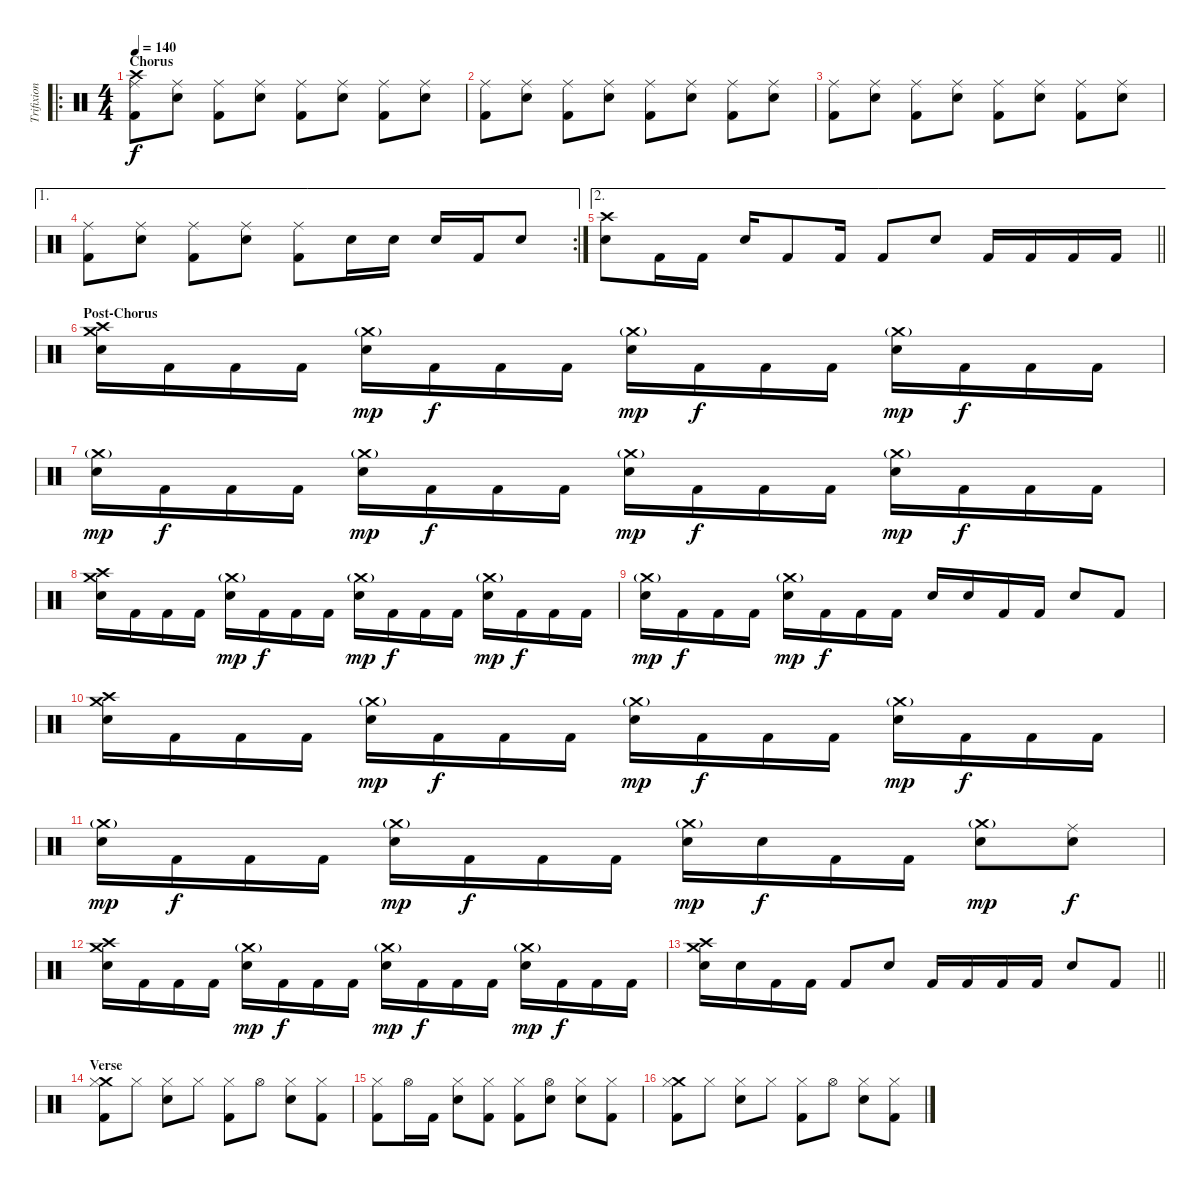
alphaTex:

\track ("Trifixion of the Horned King" "Trifixion ") {instrument percussion}
\staff {score}
\articulation defaults
\ro
\ts (4 4)
\section ("" "Chorus")
\tempo 140
\clef neutral
\ks c
("Crash high (hit)" "Ride (middle)" "Kick (hit) 2").8{dy f} ("Ride (middle)" "Electric Snare (hit)").8 ("Ride (middle)" "Kick (hit) 2").8 ("Ride (middle)" "Electric Snare (hit)").8 ("Ride (middle)" "Kick (hit) 2").8 ("Ride (middle)" "Electric Snare (hit)").8 ("Ride (middle)" "Kick (hit) 2").8 ("Ride (middle)" "Electric Snare (hit)").8 |
("Ride (middle)" "Kick (hit) 2").8 ("Ride (middle)" "Electric Snare (hit)").8 ("Ride (middle)" "Kick (hit) 2").8 ("Ride (middle)" "Electric Snare (hit)").8 ("Ride (middle)" "Kick (hit) 2").8 ("Ride (middle)" "Electric Snare (hit)").8 ("Ride (middle)" "Kick (hit) 2").8 ("Ride (middle)" "Electric Snare (hit)").8 |
("Ride (middle)" "Kick (hit) 2").8 ("Ride (middle)" "Electric Snare (hit)").8 ("Ride (middle)" "Kick (hit) 2").8 ("Ride (middle)" "Electric Snare (hit)").8 ("Ride (middle)" "Kick (hit) 2").8 ("Ride (middle)" "Electric Snare (hit)").8 ("Ride (middle)" "Kick (hit) 2").8 ("Ride (middle)" "Electric Snare (hit)").8 |
\ae 1
\rc 2
("Ride (middle)" "Kick (hit) 2").8 ("Ride (middle)" "Electric Snare (hit)").8 ("Ride (middle)" "Kick (hit) 2").8 ("Ride (middle)" "Electric Snare (hit)").8 ("Ride (middle)" "Kick (hit) 2").8 "Electric Snare (hit)".16 "Electric Snare (hit)".16 "Electric Snare (hit)".16 "Kick (hit) 2".16 "Electric Snare (hit)".8 |
\ae 2
\barLineRight lightlight
("Crash high (hit)" "Electric Snare (hit)").8 "Kick (hit) 2".16 "Kick (hit) 2".16 "Electric Snare (hit)".16 "Kick (hit) 2".8 "Kick (hit) 2".16 "Kick (hit) 2".8 "Electric Snare (hit)".8 "Kick (hit) 2".16 "Kick (hit) 2".16 "Kick (hit) 2".16 "Kick (hit) 2".16 |
\section ("" "Post-Chorus")
("Crash high (hit)" "Crash medium (hit)" "Electric Snare (hit)").16 "Kick (hit) 2".16 "Kick (hit) 2".16 "Kick (hit) 2".16 ("Crash medium (hit)"{g} "Electric Snare (hit)").16{dy mp} "Kick (hit) 2".16{dy f} "Kick (hit) 2".16 "Kick (hit) 2".16 ("Crash medium (hit)"{g} "Electric Snare (hit)").16{dy mp} "Kick (hit) 2".16{dy f} "Kick (hit) 2".16 "Kick (hit) 2".16 ("Crash medium (hit)"{g} "Electric Snare (hit)").16{dy mp} "Kick (hit) 2".16{dy f} "Kick (hit) 2".16 "Kick (hit) 2".16 |
("Crash medium (hit)"{g} "Electric Snare (hit)").16{dy mp} "Kick (hit) 2".16{dy f} "Kick (hit) 2".16 "Kick (hit) 2".16 ("Crash medium (hit)"{g} "Electric Snare (hit)").16{dy mp} "Kick (hit) 2".16{dy f} "Kick (hit) 2".16 "Kick (hit) 2".16 ("Crash medium (hit)"{g} "Electric Snare (hit)").16{dy mp} "Kick (hit) 2".16{dy f} "Kick (hit) 2".16 "Kick (hit) 2".16 ("Crash medium (hit)"{g} "Electric Snare (hit)").16{dy mp} "Kick (hit) 2".16{dy f} "Kick (hit) 2".16 "Kick (hit) 2".16 |
("Crash medium (hit)" "Crash high (hit)" "Electric Snare (hit)").16 "Kick (hit) 2".16 "Kick (hit) 2".16 "Kick (hit) 2".16 ("Crash medium (hit)"{g} "Electric Snare (hit)").16{dy mp} "Kick (hit) 2".16{dy f} "Kick (hit) 2".16 "Kick (hit) 2".16 ("Crash medium (hit)"{g} "Electric Snare (hit)").16{dy mp} "Kick (hit) 2".16{dy f} "Kick (hit) 2".16 "Kick (hit) 2".16 ("Crash medium (hit)"{g} "Electric Snare (hit)").16{dy mp} "Kick (hit) 2".16{dy f} "Kick (hit) 2".16 "Kick (hit) 2".16 |
("Crash medium (hit)"{g} "Electric Snare (hit)").16{dy mp} "Kick (hit) 2".16{dy f} "Kick (hit) 2".16 "Kick (hit) 2".16 ("Crash medium (hit)"{g} "Electric Snare (hit)").16{dy mp} "Kick (hit) 2".16{dy f} "Kick (hit) 2".16 "Kick (hit) 2".16 "Electric Snare (hit)".16 "Electric Snare (hit)".16 "Kick (hit) 2".16 "Kick (hit) 2".16 "Electric Snare (hit)".8 "Kick (hit) 2".8 |
("Crash high (hit)" "Crash medium (hit)" "Electric Snare (hit)").16 "Kick (hit) 2".16 "Kick (hit) 2".16 "Kick (hit) 2".16 ("Crash medium (hit)"{g} "Electric Snare (hit)").16{dy mp} "Kick (hit) 2".16{dy f} "Kick (hit) 2".16 "Kick (hit) 2".16 ("Crash medium (hit)"{g} "Electric Snare (hit)").16{dy mp} "Kick (hit) 2".16{dy f} "Kick (hit) 2".16 "Kick (hit) 2".16 ("Crash medium (hit)"{g} "Electric Snare (hit)").16{dy mp} "Kick (hit) 2".16{dy f} "Kick (hit) 2".16 "Kick (hit) 2".16 |
("Crash medium (hit)"{g} "Electric Snare (hit)").16{dy mp} "Kick (hit) 2".16{dy f} "Kick (hit) 2".16 "Kick (hit) 2".16 ("Crash medium (hit)"{g} "Electric Snare (hit)").16{dy mp} "Kick (hit) 2".16{dy f} "Kick (hit) 2".16 "Kick (hit) 2".16 ("Crash medium (hit)"{g} "Electric Snare (hit)").16{dy mp} "Electric Snare (hit)".16{dy f} "Kick (hit) 2".16 "Kick (hit) 2".16 ("Crash medium (hit)"{g} "Electric Snare (hit)").8{dy mp} ("Ride (middle)" "Electric Snare (hit)").8{dy f} |
("Crash high (hit)" "Crash medium (hit)" "Electric Snare (hit)").16 "Kick (hit) 2".16 "Kick (hit) 2".16 "Kick (hit) 2".16 ("Crash medium (hit)"{g} "Electric Snare (hit)").16{dy mp} "Kick (hit) 2".16{dy f} "Kick (hit) 2".16 "Kick (hit) 2".16 ("Crash medium (hit)"{g} "Electric Snare (hit)").16{dy mp} "Kick (hit) 2".16{dy f} "Kick (hit) 2".16 "Kick (hit) 2".16 ("Crash medium (hit)"{g} "Electric Snare (hit)").16{dy mp} "Kick (hit) 2".16{dy f} "Kick (hit) 2".16 "Kick (hit) 2".16 |
\barLineRight lightlight
("Crash medium (hit)" "Crash high (hit)" "Electric Snare (hit)").16 "Electric Snare (hit)".16 "Kick (hit) 2".16 "Kick (hit) 2".16 "Kick (hit) 2".8 "Electric Snare (hit)".8 "Kick (hit) 2".16 "Kick (hit) 2".16 "Kick (hit) 2".16 "Kick (hit) 2".16 "Electric Snare (hit)".8 "Kick (hit) 2".8 |
\section ("" "Verse")
("Crash medium (hit)" "Hi-Hat (closed)" "Kick (hit) 2").8 "Hi-Hat (closed)".8 ("Hi-Hat (closed)" "Electric Snare (hit)").8 "Hi-Hat (closed)".8 ("Hi-Hat (closed)" "Kick (hit) 2").8 "Hi-Hat (open)".8 ("Hi-Hat (closed)" "Electric Snare (hit)").8 ("Hi-Hat (closed)" "Kick (hit) 2").8 |
("Hi-Hat (closed)" "Kick (hit) 2").8 "Hi-Hat (open)".16 "Kick (hit) 2".16 ("Hi-Hat (closed)" "Electric Snare (hit)").8 ("Hi-Hat (closed)" "Kick (hit) 2").8 ("Hi-Hat (closed)" "Kick (hit) 2").8 ("Hi-Hat (open)" "Electric Snare (hit)").8 ("Hi-Hat (closed)" "Electric Snare (hit)").8 ("Hi-Hat (closed)" "Kick (hit) 2").8 |
("Crash medium (hit)" "Hi-Hat (closed)" "Kick (hit) 2").8 "Hi-Hat (closed)".8 ("Hi-Hat (closed)" "Electric Snare (hit)").8 "Hi-Hat (closed)".8 ("Hi-Hat (closed)" "Kick (hit) 2").8 "Hi-Hat (open)".8 ("Hi-Hat (closed)" "Electric Snare (hit)").8 ("Hi-Hat (closed)" "Kick (hit) 2").8
